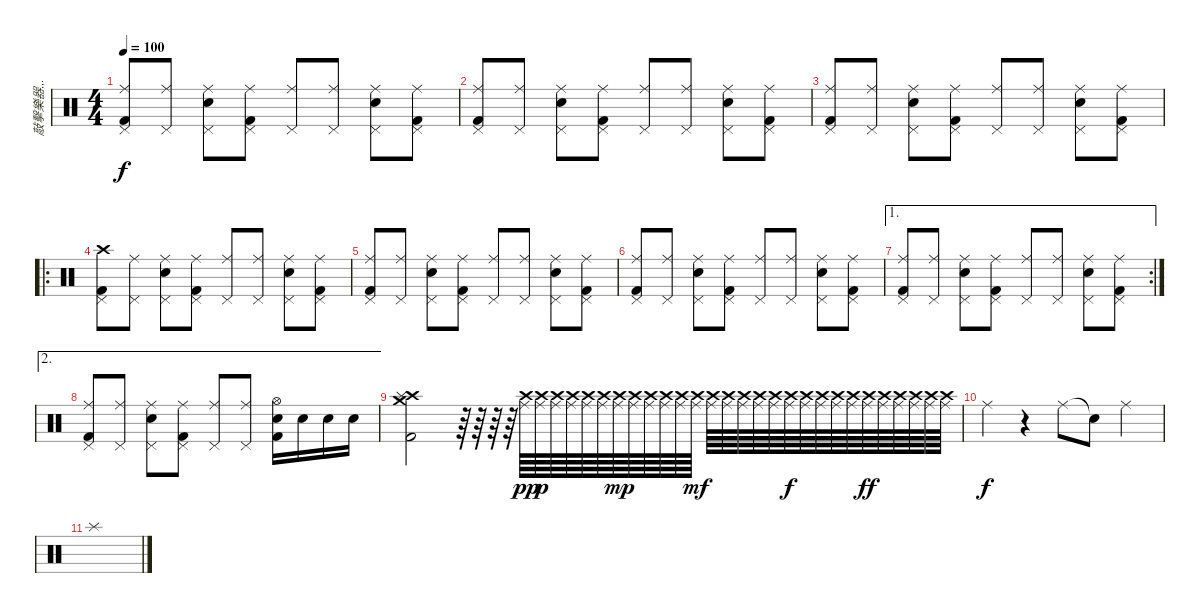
\track ("敲擊樂器,,." "敲擊樂器,,.") {instrument percussion}
\staff {score}
\articulation defaults
\ts (4 4)
\tempo 100
\clef neutral
\ks c
("Ride (middle)" "Pedal Hi-Hat (hit)" "Kick (hit) 2").8{dy f} ("Ride (middle)" "Pedal Hi-Hat (hit)").8 ("Ride (middle)" "Pedal Hi-Hat (hit)" "Snare (hit) 2").8 ("Ride (middle)" "Pedal Hi-Hat (hit)" "Kick (hit) 2").8 ("Ride (middle)" "Pedal Hi-Hat (hit)").8 ("Ride (middle)" "Pedal Hi-Hat (hit)").8 ("Ride (middle)" "Pedal Hi-Hat (hit)" "Snare (hit) 2").8 ("Ride (middle)" "Pedal Hi-Hat (hit)" "Kick (hit) 2").8 |
("Ride (middle)" "Pedal Hi-Hat (hit)" "Kick (hit) 2").8 ("Ride (middle)" "Pedal Hi-Hat (hit)").8 ("Ride (middle)" "Pedal Hi-Hat (hit)" "Snare (hit) 2").8 ("Ride (middle)" "Pedal Hi-Hat (hit)" "Kick (hit) 2").8 ("Ride (middle)" "Pedal Hi-Hat (hit)").8 ("Ride (middle)" "Pedal Hi-Hat (hit)").8 ("Ride (middle)" "Pedal Hi-Hat (hit)" "Snare (hit) 2").8 ("Ride (middle)" "Pedal Hi-Hat (hit)" "Kick (hit) 2").8 |
("Ride (middle)" "Pedal Hi-Hat (hit)" "Kick (hit) 2").8 ("Ride (middle)" "Pedal Hi-Hat (hit)").8 ("Ride (middle)" "Pedal Hi-Hat (hit)" "Snare (hit) 2").8 ("Ride (middle)" "Pedal Hi-Hat (hit)" "Kick (hit) 2").8 ("Ride (middle)" "Pedal Hi-Hat (hit)").8 ("Ride (middle)" "Pedal Hi-Hat (hit)").8 ("Ride (middle)" "Pedal Hi-Hat (hit)" "Snare (hit) 2").8 ("Ride (middle)" "Pedal Hi-Hat (hit)" "Kick (hit) 2").8 |
\ro
("Crash high (hit)" "Pedal Hi-Hat (hit)" "Kick (hit) 2").8 ("Ride (middle)" "Pedal Hi-Hat (hit)").8 ("Ride (middle)" "Pedal Hi-Hat (hit)" "Snare (hit) 2").8 ("Ride (middle)" "Pedal Hi-Hat (hit)" "Kick (hit) 2").8 ("Ride (middle)" "Pedal Hi-Hat (hit)").8 ("Ride (middle)" "Pedal Hi-Hat (hit)").8 ("Ride (middle)" "Pedal Hi-Hat (hit)" "Snare (hit) 2").8 ("Ride (middle)" "Pedal Hi-Hat (hit)" "Kick (hit) 2").8 |
("Ride (middle)" "Pedal Hi-Hat (hit)" "Kick (hit) 2").8 ("Ride (middle)" "Pedal Hi-Hat (hit)").8 ("Ride (middle)" "Pedal Hi-Hat (hit)" "Snare (hit) 2").8 ("Ride (middle)" "Pedal Hi-Hat (hit)" "Kick (hit) 2").8 ("Ride (middle)" "Pedal Hi-Hat (hit)").8 ("Ride (middle)" "Pedal Hi-Hat (hit)").8 ("Ride (middle)" "Pedal Hi-Hat (hit)" "Snare (hit) 2").8 ("Ride (middle)" "Pedal Hi-Hat (hit)" "Kick (hit) 2").8 |
("Ride (middle)" "Pedal Hi-Hat (hit)" "Kick (hit) 2").8 ("Ride (middle)" "Pedal Hi-Hat (hit)").8 ("Ride (middle)" "Pedal Hi-Hat (hit)" "Snare (hit) 2").8 ("Ride (middle)" "Pedal Hi-Hat (hit)" "Kick (hit) 2").8 ("Ride (middle)" "Pedal Hi-Hat (hit)").8 ("Ride (middle)" "Pedal Hi-Hat (hit)").8 ("Ride (middle)" "Pedal Hi-Hat (hit)" "Snare (hit) 2").8 ("Ride (middle)" "Pedal Hi-Hat (hit)" "Kick (hit) 2").8 |
\ae 1
\rc 2
("Ride (middle)" "Pedal Hi-Hat (hit)" "Kick (hit) 2").8 ("Ride (middle)" "Pedal Hi-Hat (hit)").8 ("Ride (middle)" "Pedal Hi-Hat (hit)" "Snare (hit) 2").8 ("Ride (middle)" "Pedal Hi-Hat (hit)" "Kick (hit) 2").8 ("Ride (middle)" "Pedal Hi-Hat (hit)").8 ("Ride (middle)" "Pedal Hi-Hat (hit)").8 ("Ride (middle)" "Pedal Hi-Hat (hit)" "Snare (hit) 2").8 ("Ride (middle)" "Pedal Hi-Hat (hit)" "Kick (hit) 2").8 |
\ae 2
("Ride (middle)" "Pedal Hi-Hat (hit)" "Kick (hit) 2").8 ("Ride (middle)" "Pedal Hi-Hat (hit)").8 ("Ride (middle)" "Pedal Hi-Hat (hit)" "Snare (hit) 2").8 ("Ride (middle)" "Pedal Hi-Hat (hit)" "Kick (hit) 2").8 ("Ride (middle)" "Pedal Hi-Hat (hit)").8 ("Ride (middle)" "Pedal Hi-Hat (hit)").8 ("Hi-Hat (open)" "Snare (hit) 2" "Kick (hit) 2").16 "Snare (hit) 2".16 "Snare (hit) 2".16 "Snare (hit) 2".16 |
("Crash high (hit)" "Splash (hit)" "Crash medium (hit)" "Kick (hit) 2").2 r.64 r.64 r.64 r.64 ("Crash high (hit)" "Ride (middle)").64{dy pp} ("Crash high (hit)" "Ride (middle)").64{dy p} ("Crash high (hit)" "Ride (middle)").64 ("Crash high (hit)" "Ride (middle)").64 ("Crash high (hit)" "Ride (middle)").64 ("Crash high (hit)" "Ride (middle)").64 ("Crash high (hit)" "Ride (middle)").64{dy mp} ("Crash high (hit)" "Ride (middle)").64 ("Crash high (hit)" "Ride (middle)").64 ("Crash high (hit)" "Ride (middle)").64 ("Crash high (hit)" "Ride (middle)").64 ("Crash high (hit)" "Ride (middle)").64{dy mf} ("Crash high (hit)" "Ride (middle)").64 ("Crash high (hit)" "Ride (middle)").64 ("Crash high (hit)" "Ride (middle)").64 ("Crash high (hit)" "Ride (middle)").64 ("Crash high (hit)" "Ride (middle)").64 ("Crash high (hit)" "Ride (middle)").64{dy f} ("Crash high (hit)" "Ride (middle)").64 ("Crash high (hit)" "Ride (middle)").64 ("Crash high (hit)" "Ride (middle)").64 ("Crash high (hit)" "Ride (middle)").64 ("Crash high (hit)" "Ride (middle)").64{dy ff} ("Crash high (hit)" "Ride (middle)").64 ("Crash high (hit)" "Ride (middle)").64 ("Crash high (hit)" "Ride (middle)").64 ("Crash high (hit)" "Ride (middle)").64 ("Crash high (hit)" "Ride (middle)").64 |
"Ride (middle)".4{dy f} r.4 "Ride (middle)".8 "Snare (hit)"{t}.8 "Ride (middle)".4 |
"Splash (hit)".1
